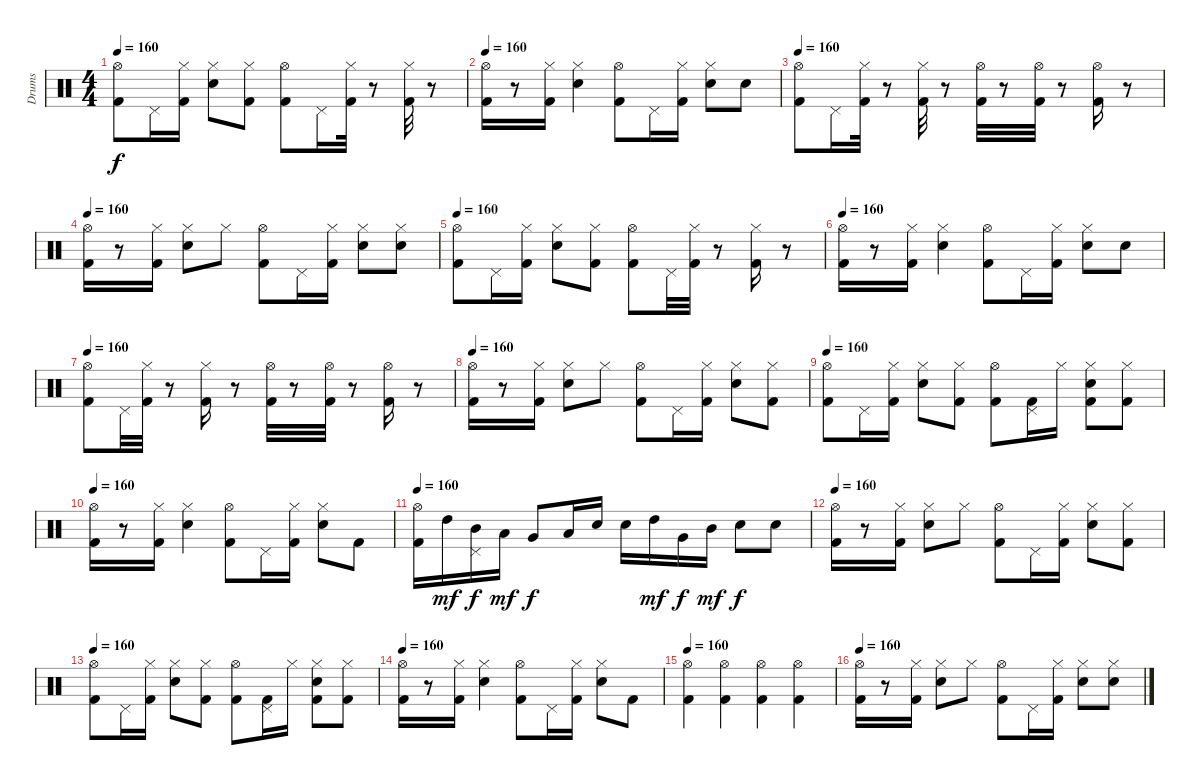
\track ("Drums" "Drums") {instrument percussion}
\staff {score}
\articulation defaults
\ts (4 4)
\tempo 160
\clef neutral
\ks c
("Kick (hit) 2" "Hi-Hat (open)").8{dy f} "Pedal Hi-Hat (hit)".16 ("Kick (hit) 2" "Hi-Hat (closed)").16 ("Snare (hit) 2" "Hi-Hat (closed)").8 ("Kick (hit) 2" "Hi-Hat (closed)").8 ("Kick (hit) 2" "Hi-Hat (open)").8 "Pedal Hi-Hat (hit)".16 ("Kick (hit) 2" "Hi-Hat (closed)").32 r.8 ("Kick (hit) 2" "Hi-Hat (closed)").32 r.8 |
\tempo 160
("Kick (hit) 2" "Hi-Hat (open)").16 r.8 ("Kick (hit) 2" "Hi-Hat (closed)").16 ("Snare (hit) 2" "Hi-Hat (closed)").4 ("Kick (hit) 2" "Hi-Hat (open)").8 "Pedal Hi-Hat (hit)".16 ("Kick (hit) 2" "Hi-Hat (closed)").16 ("Snare (hit) 2" "Hi-Hat (closed)").8 "Snare (hit) 2".8 |
\tempo 160
("Kick (hit) 2" "Hi-Hat (open)").8 "Pedal Hi-Hat (hit)".16 ("Kick (hit) 2" "Hi-Hat (closed)").32 r.8 ("Kick (hit) 2" "Hi-Hat (closed)").32 r.8 ("Kick (hit) 2" "Hi-Hat (open)").32 r.8 ("Kick (hit) 2" "Hi-Hat (open)").32 r.8 ("Kick (hit) 2" "Hi-Hat (open)").16 r.8 |
\tempo 160
("Kick (hit) 2" "Hi-Hat (open)").16 r.8 ("Kick (hit) 2" "Hi-Hat (closed)").16 ("Snare (hit) 2" "Hi-Hat (closed)").8 "Hi-Hat (closed)".8 ("Kick (hit) 2" "Hi-Hat (open)").8 "Pedal Hi-Hat (hit)".16 ("Kick (hit) 2" "Hi-Hat (closed)").16 ("Snare (hit) 2" "Hi-Hat (closed)").8 ("Snare (hit) 2" "Hi-Hat (closed)").8 |
\tempo 160
("Kick (hit) 2" "Hi-Hat (open)").8 "Pedal Hi-Hat (hit)".16 ("Kick (hit) 2" "Hi-Hat (closed)").16 ("Snare (hit) 2" "Hi-Hat (closed)").8 ("Kick (hit) 2" "Hi-Hat (closed)").8 ("Kick (hit) 2" "Hi-Hat (open)").8 "Pedal Hi-Hat (hit)".32 ("Kick (hit) 2" "Hi-Hat (closed)").32 r.8 ("Kick (hit) 2" "Hi-Hat (closed)").16 r.8 |
\tempo 160
("Kick (hit) 2" "Hi-Hat (open)").16 r.8 ("Kick (hit) 2" "Hi-Hat (closed)").16 ("Snare (hit) 2" "Hi-Hat (closed)").4 ("Kick (hit) 2" "Hi-Hat (open)").8 "Pedal Hi-Hat (hit)".16 ("Kick (hit) 2" "Hi-Hat (closed)").16 ("Snare (hit) 2" "Hi-Hat (closed)").8 "Snare (hit) 2".8 |
\tempo 160
("Kick (hit) 2" "Hi-Hat (open)").8 "Pedal Hi-Hat (hit)".32 ("Kick (hit) 2" "Hi-Hat (closed)").32 r.8 ("Kick (hit) 2" "Hi-Hat (closed)").16 r.8 ("Kick (hit) 2" "Hi-Hat (open)").32 r.8 ("Kick (hit) 2" "Hi-Hat (open)").32 r.8 ("Kick (hit) 2" "Hi-Hat (open)").16 r.8 |
\tempo 160
("Kick (hit) 2" "Hi-Hat (open)").16 r.8 ("Kick (hit) 2" "Hi-Hat (closed)").16 ("Snare (hit) 2" "Hi-Hat (closed)").8 "Hi-Hat (closed)".8 ("Kick (hit) 2" "Hi-Hat (open)").8 "Pedal Hi-Hat (hit)".16 ("Kick (hit) 2" "Hi-Hat (closed)").16 ("Snare (hit) 2" "Hi-Hat (closed)").8 ("Kick (hit) 2" "Hi-Hat (closed)").8 |
\tempo 160
("Kick (hit) 2" "Hi-Hat (open)").8 "Pedal Hi-Hat (hit)".16 ("Kick (hit) 2" "Hi-Hat (closed)").16 ("Snare (hit) 2" "Hi-Hat (closed)").8 ("Kick (hit) 2" "Hi-Hat (closed)").8 ("Kick (hit) 2" "Hi-Hat (open)").8 ("Kick (hit) 2" "Pedal Hi-Hat (hit)").16 "Hi-Hat (closed)".16 ("Kick (hit) 2" "Snare (hit) 2" "Hi-Hat (closed)").8 ("Kick (hit) 2" "Hi-Hat (closed)").8 |
\tempo 160
("Kick (hit) 2" "Hi-Hat (open)").16 r.8 ("Kick (hit) 2" "Hi-Hat (closed)").16 ("Snare (hit) 2" "Hi-Hat (closed)").4 ("Kick (hit) 2" "Hi-Hat (open)").8 "Pedal Hi-Hat (hit)".16 ("Kick (hit) 2" "Hi-Hat (closed)").16 ("Snare (hit) 2" "Hi-Hat (closed)").8 "Kick (hit) 2".8 |
\tempo 160
("Kick (hit) 2" "Hi-Hat (open)").16 "High Tom (hit)".16{dy mf} ("Pedal Hi-Hat (hit)" "Mid Tom (hit)").16{dy f} "Low Tom (hit)".16{dy mf} "Very Low Tom (hit)".8{dy f} "Low Tom (hit)".16 "Snare (hit) 2".16 "Snare (hit) 2".16 "High Tom (hit)".16{dy mf} "Very Low Tom (hit)".16{dy f} "Mid Tom (hit)".16{dy mf} "Snare (hit) 2".8{dy f} "Snare (hit) 2".8 |
\tempo 160
("Kick (hit) 2" "Hi-Hat (open)").16 r.8 ("Kick (hit) 2" "Hi-Hat (closed)").16 ("Snare (hit) 2" "Hi-Hat (closed)").8 "Hi-Hat (closed)".8 ("Kick (hit) 2" "Hi-Hat (open)").8 "Pedal Hi-Hat (hit)".16 ("Kick (hit) 2" "Hi-Hat (closed)").16 ("Snare (hit) 2" "Hi-Hat (closed)").8 ("Kick (hit) 2" "Hi-Hat (closed)").8 |
\tempo 160
("Kick (hit) 2" "Hi-Hat (open)").8 "Pedal Hi-Hat (hit)".16 ("Kick (hit) 2" "Hi-Hat (closed)").16 ("Snare (hit) 2" "Hi-Hat (closed)").8 ("Kick (hit) 2" "Hi-Hat (closed)").8 ("Kick (hit) 2" "Hi-Hat (open)").8 ("Kick (hit) 2" "Pedal Hi-Hat (hit)").16 "Hi-Hat (closed)".16 ("Kick (hit) 2" "Snare (hit) 2" "Hi-Hat (closed)").8 ("Kick (hit) 2" "Hi-Hat (closed)").8 |
\tempo 160
("Kick (hit) 2" "Hi-Hat (open)").16 r.8 ("Kick (hit) 2" "Hi-Hat (closed)").16 ("Snare (hit) 2" "Hi-Hat (closed)").4 ("Kick (hit) 2" "Hi-Hat (open)").8 "Pedal Hi-Hat (hit)".16 ("Kick (hit) 2" "Hi-Hat (closed)").16 ("Snare (hit) 2" "Hi-Hat (closed)").8 "Kick (hit) 2".8 |
\tempo 160
("Kick (hit) 2" "Hi-Hat (open)").4 ("Kick (hit) 2" "Hi-Hat (open)").4 ("Kick (hit) 2" "Hi-Hat (open)").4 ("Kick (hit) 2" "Hi-Hat (open)").4 |
\tempo 160
("Kick (hit) 2" "Hi-Hat (open)").16 r.8 ("Kick (hit) 2" "Hi-Hat (closed)").16 ("Snare (hit) 2" "Hi-Hat (closed)").8 "Hi-Hat (closed)".8 ("Kick (hit) 2" "Hi-Hat (open)").8 "Pedal Hi-Hat (hit)".16 ("Kick (hit) 2" "Hi-Hat (closed)").16 ("Snare (hit) 2" "Hi-Hat (closed)").8 ("Snare (hit) 2" "Hi-Hat (closed)").8
